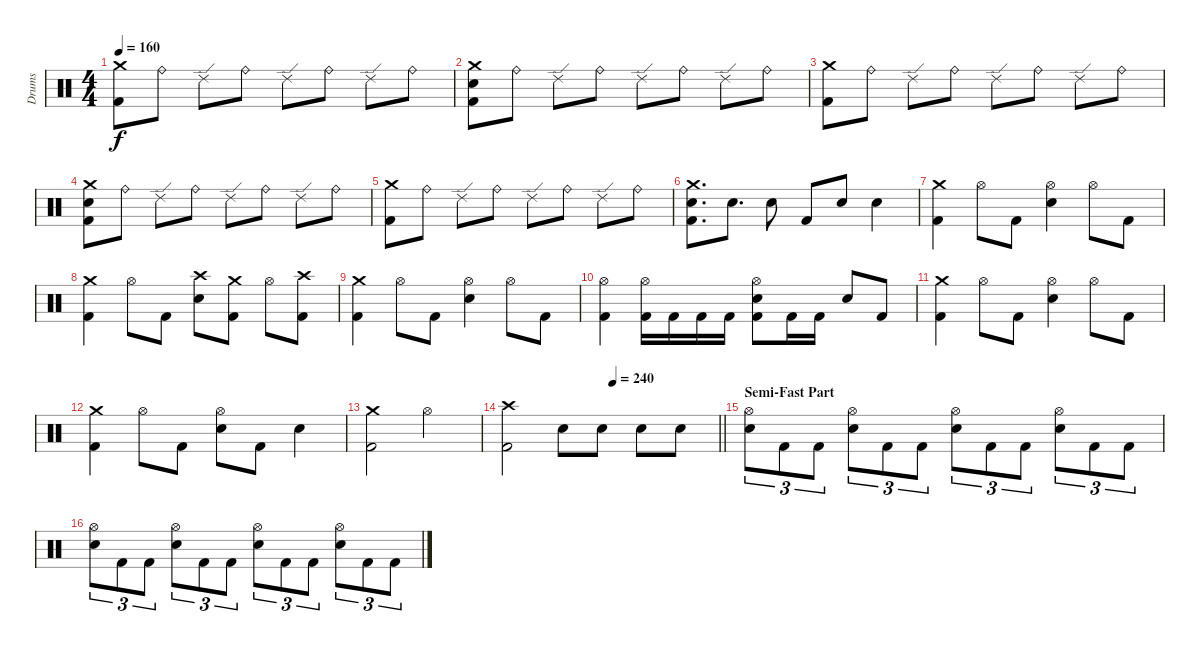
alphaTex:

\track ("Drums" "Drums") {instrument percussion}
\staff {score}
\articulation defaults
\ts (4 4)
\tempo 160
\clef neutral
\ks c
("Crash medium (hit)" "Kick (hit) 2").8{dy f} "Ride (bell)".8 "Ride (edge) 2".8 "Ride (bell)".8 "Ride (edge) 2".8 "Ride (bell)".8 "Ride (edge) 2".8 "Ride (bell)".8 |
("Crash medium (hit)" "Snare (hit) 2" "Kick (hit) 2").8 "Ride (bell)".8 "Ride (edge) 2".8 "Ride (bell)".8 "Ride (edge) 2".8 "Ride (bell)".8 "Ride (edge) 2".8 "Ride (bell)".8 |
("Crash medium (hit)" "Kick (hit) 2").8 "Ride (bell)".8 "Ride (edge) 2".8 "Ride (bell)".8 "Ride (edge) 2".8 "Ride (bell)".8 "Ride (edge) 2".8 "Ride (bell)".8 |
("Crash medium (hit)" "Snare (hit) 2" "Kick (hit) 2").8 "Ride (bell)".8 "Ride (edge) 2".8 "Ride (bell)".8 "Ride (edge) 2".8 "Ride (bell)".8 "Ride (edge) 2".8 "Ride (bell)".8 |
("Crash medium (hit)" "Kick (hit) 2").8 "Ride (bell)".8 "Ride (edge) 2".8 "Ride (bell)".8 "Ride (edge) 2".8 "Ride (bell)".8 "Ride (edge) 2".8 "Ride (bell)".8 |
("Crash medium (hit)" "Snare (hit) 2" "Kick (hit) 2").8{d} "Snare (hit) 2".8{d} "Snare (hit) 2".8 "Kick (hit) 2".8 "Snare (hit) 2".8 "Snare (hit) 2".4 |
("Crash medium (hit)" "Kick (hit) 2").4 "Hi-Hat (open)".8 "Kick (hit) 2".8 ("Hi-Hat (open)" "Snare (hit) 2").4 "Hi-Hat (open)".8 "Kick (hit) 2".8 |
("Crash medium (hit)" "Kick (hit) 2").4 "Hi-Hat (open)".8 "Kick (hit) 2".8 ("Crash high (hit)" "Snare (hit) 2").8 ("Crash medium (hit)" "Kick (hit) 2").8 "Hi-Hat (open)".8 ("Crash high (hit)" "Kick (hit) 2").8 |
("Crash medium (hit)" "Kick (hit) 2").4 "Hi-Hat (open)".8 "Kick (hit) 2".8 ("Hi-Hat (open)" "Snare (hit) 2").4 "Hi-Hat (open)".8 "Kick (hit) 2".8 |
("Hi-Hat (open)" "Kick (hit) 2").4 ("Hi-Hat (open)" "Kick (hit) 2").16 "Kick (hit) 2".16 "Kick (hit) 2".16 "Kick (hit) 2".16 ("Hi-Hat (open)" "Snare (hit) 2" "Kick (hit) 2").8 "Kick (hit) 2".16 "Kick (hit) 2".16 "Snare (hit) 2".8 "Kick (hit) 2".8 |
("Crash medium (hit)" "Kick (hit) 2").4 "Hi-Hat (open)".8 "Kick (hit) 2".8 ("Hi-Hat (open)" "Snare (hit) 2").4 "Hi-Hat (open)".8 "Kick (hit) 2".8 |
("Crash medium (hit)" "Kick (hit) 2").4 "Hi-Hat (open)".8 "Kick (hit) 2".8 ("Hi-Hat (open)" "Snare (hit) 2").8 "Kick (hit) 2".8 "Snare (hit) 2".4 |
("Crash medium (hit)" "Kick (hit) 2").2 "Hi-Hat (open)".2 |
\tempo (240 0.5)
\barLineRight lightlight
("Crash high (hit)" "Kick (hit) 2").2 "Snare (hit) 2".8 "Snare (hit) 2".8 "Snare (hit) 2".8 "Snare (hit) 2".8 |
\section ("" "Semi-Fast Part")
("Hi-Hat (open)" "Snare (hit) 2").8{tu (3 2)} "Kick (hit) 2".8{tu (3 2)} "Kick (hit) 2".8{tu (3 2)} ("Hi-Hat (open)" "Snare (hit) 2").8{tu (3 2)} "Kick (hit) 2".8{tu (3 2)} "Kick (hit) 2".8{tu (3 2)} ("Hi-Hat (open)" "Snare (hit) 2").8{tu (3 2)} "Kick (hit) 2".8{tu (3 2)} "Kick (hit) 2".8{tu (3 2)} ("Hi-Hat (open)" "Snare (hit) 2").8{tu (3 2)} "Kick (hit) 2".8{tu (3 2)} "Kick (hit) 2".8{tu (3 2)} |
("Hi-Hat (open)" "Snare (hit) 2").8{tu (3 2)} "Kick (hit) 2".8{tu (3 2)} "Kick (hit) 2".8{tu (3 2)} ("Hi-Hat (open)" "Snare (hit) 2").8{tu (3 2)} "Kick (hit) 2".8{tu (3 2)} "Kick (hit) 2".8{tu (3 2)} ("Hi-Hat (open)" "Snare (hit) 2").8{tu (3 2)} "Kick (hit) 2".8{tu (3 2)} "Kick (hit) 2".8{tu (3 2)} ("Hi-Hat (open)" "Snare (hit) 2").8{tu (3 2)} "Kick (hit) 2".8{tu (3 2)} "Kick (hit) 2".8{tu (3 2)}
